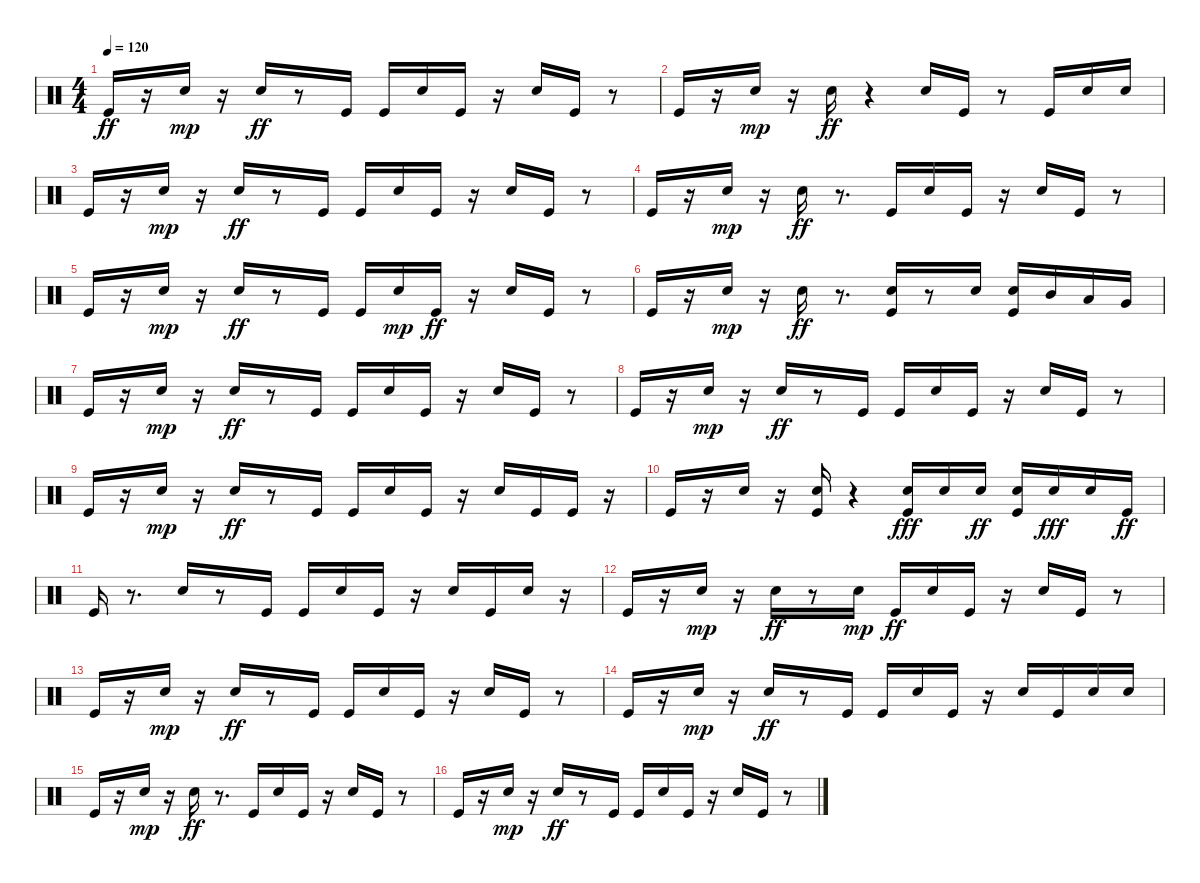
\track "" {instrument percussion}
\staff {score}
\articulation defaults
\ts (4 4)
\tempo 120
\clef neutral
\ks c "Kick (hit)".16{dy ff}
r.16 "Electric Snare (hit)".16{dy mp} r.16 "Electric Snare (hit)".16{dy ff} r.8 "Kick (hit)".16 "Kick (hit)".16 "Electric Snare (hit)".16 "Kick (hit)".16 r.16 "Electric Snare (hit)".16 "Kick (hit)".16 r.8 |
"Kick (hit)".16 r.16 "Electric Snare (hit)".16{dy mp} r.16 "Electric Snare (hit)".16{dy ff} r.4 "Electric Snare (hit)".16 "Kick (hit)".16 r.8 "Kick (hit)".16 "Electric Snare (hit)".16 "Electric Snare (hit)".16 |
"Kick (hit)".16 r.16 "Electric Snare (hit)".16{dy mp} r.16 "Electric Snare (hit)".16{dy ff} r.8 "Kick (hit)".16 "Kick (hit)".16 "Electric Snare (hit)".16 "Kick (hit)".16 r.16 "Electric Snare (hit)".16 "Kick (hit)".16 r.8 |
"Kick (hit)".16 r.16 "Electric Snare (hit)".16{dy mp} r.16 "Electric Snare (hit)".16{dy ff} r.8{d} "Kick (hit)".16 "Electric Snare (hit)".16 "Kick (hit)".16 r.16 "Electric Snare (hit)".16 "Kick (hit)".16 r.8 |
"Kick (hit)".16 r.16 "Electric Snare (hit)".16{dy mp} r.16 "Electric Snare (hit)".16{dy ff} r.8 "Kick (hit)".16 "Kick (hit)".16 "Electric Snare (hit)".16{dy mp} "Kick (hit)".16{dy ff} r.16 "Electric Snare (hit)".16 "Kick (hit)".16 r.8 |
"Kick (hit)".16 r.16 "Electric Snare (hit)".16{dy mp} r.16 "Electric Snare (hit)".16{dy ff} r.8{d} ("Electric Snare (hit)" "Kick (hit)").16 r.8 "Electric Snare (hit)".16 ("Kick (hit)" "Electric Snare (hit)").16 "Mid Tom (hit)".16 "Low Tom (hit)".16 "Very Low Tom (hit)".16 |
"Kick (hit)".16 r.16 "Electric Snare (hit)".16{dy mp} r.16 "Electric Snare (hit)".16{dy ff} r.8 "Kick (hit)".16 "Kick (hit)".16 "Electric Snare (hit)".16 "Kick (hit)".16 r.16 "Electric Snare (hit)".16 "Kick (hit)".16 r.8 |
"Kick (hit)".16 r.16 "Electric Snare (hit)".16{dy mp} r.16 "Electric Snare (hit)".16{dy ff} r.8 "Kick (hit)".16 "Kick (hit)".16 "Electric Snare (hit)".16 "Kick (hit)".16 r.16 "Electric Snare (hit)".16 "Kick (hit)".16 r.8 |
"Kick (hit)".16 r.16 "Electric Snare (hit)".16{dy mp} r.16 "Electric Snare (hit)".16{dy ff} r.8 "Kick (hit)".16 "Kick (hit)".16 "Electric Snare (hit)".16 "Kick (hit)".16 r.16 "Electric Snare (hit)".16 "Kick (hit)".16 "Kick (hit)".16 r.16 |
"Kick (hit)".16 r.16 "Electric Snare (hit)".16 r.16 ("Electric Snare (hit)" "Kick (hit)").16 r.4 ("Kick (hit)" "Electric Snare (hit)").16{dy fff} "Electric Snare (hit)".16 "Electric Snare (hit)".16{dy ff} ("Kick (hit)" "Electric Snare (hit)").16 "Electric Snare (hit)".16{dy fff} "Electric Snare (hit)".16 "Kick (hit)".16{dy ff} |
"Kick (hit)".16 r.8{d} "Electric Snare (hit)".16 r.8 "Kick (hit)".16 "Kick (hit)".16 "Electric Snare (hit)".16 "Kick (hit)".16 r.16 "Electric Snare (hit)".16 "Kick (hit)".16 "Electric Snare (hit)".16 r.16 |
"Kick (hit)".16 r.16 "Electric Snare (hit)".16{dy mp} r.16 "Electric Snare (hit)".16{dy ff} r.8 "Electric Snare (hit)".16{dy mp} "Kick (hit)".16{dy ff} "Electric Snare (hit)".16 "Kick (hit)".16 r.16 "Electric Snare (hit)".16 "Kick (hit)".16 r.8 |
"Kick (hit)".16 r.16 "Electric Snare (hit)".16{dy mp} r.16 "Electric Snare (hit)".16{dy ff} r.8 "Kick (hit)".16 "Kick (hit)".16 "Electric Snare (hit)".16 "Kick (hit)".16 r.16 "Electric Snare (hit)".16 "Kick (hit)".16 r.8 |
"Kick (hit)".16 r.16 "Electric Snare (hit)".16{dy mp} r.16 "Electric Snare (hit)".16{dy ff} r.8 "Kick (hit)".16 "Kick (hit)".16 "Electric Snare (hit)".16 "Kick (hit)".16 r.16 "Electric Snare (hit)".16 "Kick (hit)".16 "Electric Snare (hit)".16 "Electric Snare (hit)".16 |
"Kick (hit)".16 r.16 "Electric Snare (hit)".16{dy mp} r.16 "Electric Snare (hit)".16{dy ff} r.8{d} "Kick (hit)".16 "Electric Snare (hit)".16 "Kick (hit)".16 r.16 "Electric Snare (hit)".16 "Kick (hit)".16 r.8 |
"Kick (hit)".16 r.16 "Electric Snare (hit)".16{dy mp} r.16 "Electric Snare (hit)".16{dy ff} r.8 "Kick (hit)".16 "Kick (hit)".16 "Electric Snare (hit)".16 "Kick (hit)".16 r.16 "Electric Snare (hit)".16 "Kick (hit)".16 r.8
